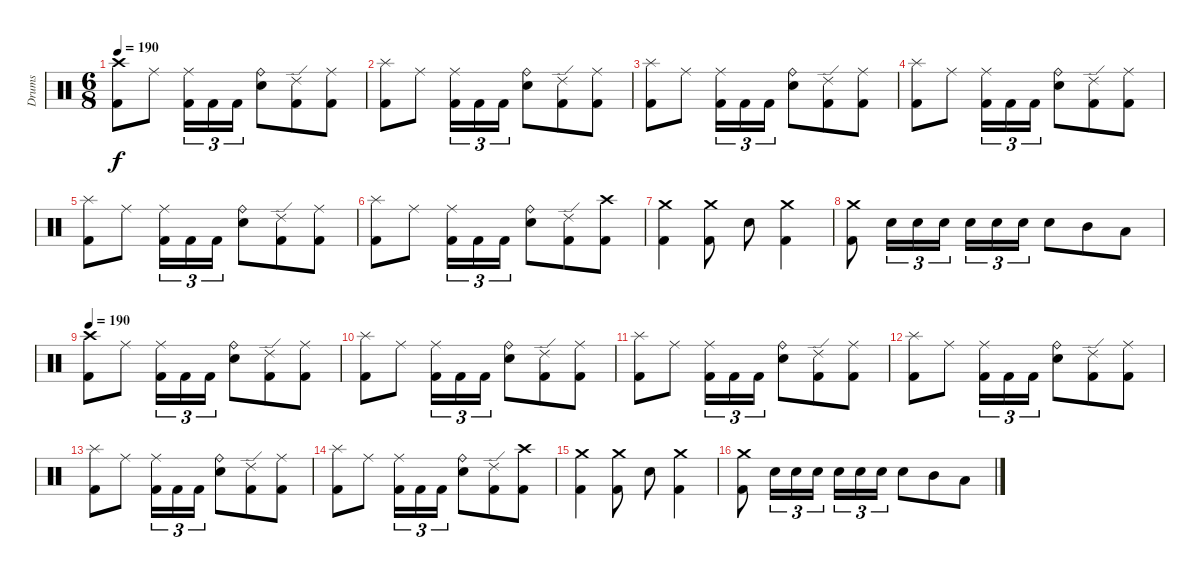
\track ("Drums" "Drums") {instrument percussion}
\staff {score}
\articulation defaults
\ts (6 8)
\tempo 190
\clef neutral
\ks c
("Crash high (hit)" "Kick (hit) 2").8{dy f} "Ride (middle)".8 ("Ride (middle)" "Kick (hit) 2").16{tu (3 2)} "Kick (hit) 2".16{tu (3 2)} "Kick (hit) 2".16{tu (3 2)} ("Ride (bell)" "Electric Snare (hit)").8 ("Ride (edge) 2" "Kick (hit) 2").8 ("Ride (middle)" "Kick (hit) 2").8 |
("Splash (hit)" "Kick (hit) 2").8 "Ride (middle)".8 ("Ride (middle)" "Kick (hit) 2").16{tu (3 2)} "Kick (hit) 2".16{tu (3 2)} "Kick (hit) 2".16{tu (3 2)} ("Ride (bell)" "Electric Snare (hit)").8 ("Ride (edge) 2" "Kick (hit) 2").8 ("Ride (middle)" "Kick (hit) 2").8 |
("Splash (hit)" "Kick (hit) 2").8 "Ride (middle)".8 ("Ride (middle)" "Kick (hit) 2").16{tu (3 2)} "Kick (hit) 2".16{tu (3 2)} "Kick (hit) 2".16{tu (3 2)} ("Ride (bell)" "Electric Snare (hit)").8 ("Ride (edge) 2" "Kick (hit) 2").8 ("Ride (middle)" "Kick (hit) 2").8 |
("Splash (hit)" "Kick (hit) 2").8 "Ride (middle)".8 ("Ride (middle)" "Kick (hit) 2").16{tu (3 2)} "Kick (hit) 2".16{tu (3 2)} "Kick (hit) 2".16{tu (3 2)} ("Ride (bell)" "Electric Snare (hit)").8 ("Ride (edge) 2" "Kick (hit) 2").8 ("Ride (middle)" "Kick (hit) 2").8 |
("Splash (hit)" "Kick (hit) 2").8 "Ride (middle)".8 ("Ride (middle)" "Kick (hit) 2").16{tu (3 2)} "Kick (hit) 2".16{tu (3 2)} "Kick (hit) 2".16{tu (3 2)} ("Ride (bell)" "Electric Snare (hit)").8 ("Ride (edge) 2" "Kick (hit) 2").8 ("Ride (middle)" "Kick (hit) 2").8 |
("Splash (hit)" "Kick (hit) 2").8 "Ride (middle)".8 ("Ride (middle)" "Kick (hit) 2").16{tu (3 2)} "Kick (hit) 2".16{tu (3 2)} "Kick (hit) 2".16{tu (3 2)} ("Ride (bell)" "Electric Snare (hit)").8 ("Ride (edge) 2" "Kick (hit) 2").8 ("Crash high (hit)" "Kick (hit) 2").8 |
("Crash medium (hit)" "Kick (hit) 2").4 ("Crash medium (hit)" "Kick (hit) 2").8 "Electric Snare (hit)".8 ("Crash medium (hit)" "Kick (hit) 2").4 |
("Crash medium (hit)" "Kick (hit) 2").8 "Electric Snare (hit)".16{tu (3 2)} "Electric Snare (hit)".16{tu (3 2)} "Electric Snare (hit)".16{tu (3 2)} "Electric Snare (hit)".16{tu (3 2)} "Electric Snare (hit)".16{tu (3 2)} "Electric Snare (hit)".16{tu (3 2)} "Electric Snare (hit)".8 "Mid Tom (hit)".8 "Low Tom (hit)".8 |
\tempo 190
("Crash high (hit)" "Kick (hit) 2").8 "Ride (middle)".8 ("Ride (middle)" "Kick (hit) 2").16{tu (3 2)} "Kick (hit) 2".16{tu (3 2)} "Kick (hit) 2".16{tu (3 2)} ("Ride (bell)" "Electric Snare (hit)").8 ("Ride (edge) 2" "Kick (hit) 2").8 ("Ride (middle)" "Kick (hit) 2").8 |
("Splash (hit)" "Kick (hit) 2").8 "Ride (middle)".8 ("Ride (middle)" "Kick (hit) 2").16{tu (3 2)} "Kick (hit) 2".16{tu (3 2)} "Kick (hit) 2".16{tu (3 2)} ("Ride (bell)" "Electric Snare (hit)").8 ("Ride (edge) 2" "Kick (hit) 2").8 ("Ride (middle)" "Kick (hit) 2").8 |
("Splash (hit)" "Kick (hit) 2").8 "Ride (middle)".8 ("Ride (middle)" "Kick (hit) 2").16{tu (3 2)} "Kick (hit) 2".16{tu (3 2)} "Kick (hit) 2".16{tu (3 2)} ("Ride (bell)" "Electric Snare (hit)").8 ("Ride (edge) 2" "Kick (hit) 2").8 ("Ride (middle)" "Kick (hit) 2").8 |
("Splash (hit)" "Kick (hit) 2").8 "Ride (middle)".8 ("Ride (middle)" "Kick (hit) 2").16{tu (3 2)} "Kick (hit) 2".16{tu (3 2)} "Kick (hit) 2".16{tu (3 2)} ("Ride (bell)" "Electric Snare (hit)").8 ("Ride (edge) 2" "Kick (hit) 2").8 ("Ride (middle)" "Kick (hit) 2").8 |
("Splash (hit)" "Kick (hit) 2").8 "Ride (middle)".8 ("Ride (middle)" "Kick (hit) 2").16{tu (3 2)} "Kick (hit) 2".16{tu (3 2)} "Kick (hit) 2".16{tu (3 2)} ("Ride (bell)" "Electric Snare (hit)").8 ("Ride (edge) 2" "Kick (hit) 2").8 ("Ride (middle)" "Kick (hit) 2").8 |
("Splash (hit)" "Kick (hit) 2").8 "Ride (middle)".8 ("Ride (middle)" "Kick (hit) 2").16{tu (3 2)} "Kick (hit) 2".16{tu (3 2)} "Kick (hit) 2".16{tu (3 2)} ("Ride (bell)" "Electric Snare (hit)").8 ("Ride (edge) 2" "Kick (hit) 2").8 ("Crash high (hit)" "Kick (hit) 2").8 |
("Crash medium (hit)" "Kick (hit) 2").4 ("Crash medium (hit)" "Kick (hit) 2").8 "Electric Snare (hit)".8 ("Crash medium (hit)" "Kick (hit) 2").4 |
("Crash medium (hit)" "Kick (hit) 2").8 "Electric Snare (hit)".16{tu (3 2)} "Electric Snare (hit)".16{tu (3 2)} "Electric Snare (hit)".16{tu (3 2)} "Electric Snare (hit)".16{tu (3 2)} "Electric Snare (hit)".16{tu (3 2)} "Electric Snare (hit)".16{tu (3 2)} "Electric Snare (hit)".8 "Mid Tom (hit)".8 "Low Tom (hit)".8
